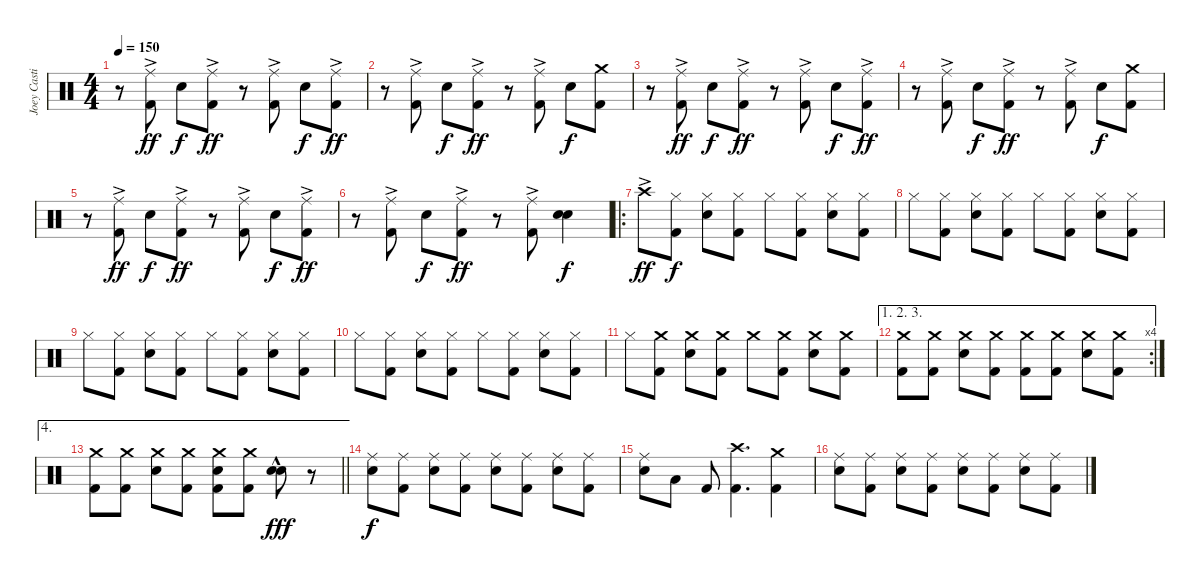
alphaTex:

\track ("Joey Castillo" "Joey Casti") {instrument percussion}
\staff {score}
\articulation defaults
\ts (4 4)
\tempo 150
\clef neutral
\ks c
r.8{dy f} ("Ride (middle)"{ac} "Kick (hit) 2").8{dy ff} "Snare (hit) 2".8{dy f} ("Ride (middle)"{ac} "Kick (hit) 2").8{dy ff} r.8 ("Ride (middle)"{ac} "Kick (hit) 2").8 "Snare (hit) 2".8{dy f} ("Ride (middle)"{ac} "Kick (hit) 2").8{dy ff} |
r.8 ("Ride (middle)"{ac} "Kick (hit) 2").8 "Snare (hit) 2".8{dy f} ("Ride (middle)"{ac} "Kick (hit) 2").8{dy ff} r.8 ("Ride (middle)"{ac} "Kick (hit) 2").8 "Snare (hit) 2".8{dy f} ("Crash medium (hit)" "Kick (hit) 2").8 |
r.8 ("Ride (middle)"{ac} "Kick (hit) 2").8{dy ff} "Snare (hit) 2".8{dy f} ("Ride (middle)"{ac} "Kick (hit) 2").8{dy ff} r.8 ("Ride (middle)"{ac} "Kick (hit) 2").8 "Snare (hit) 2".8{dy f} ("Ride (middle)"{ac} "Kick (hit) 2").8{dy ff} |
r.8 ("Ride (middle)"{ac} "Kick (hit) 2").8 "Snare (hit) 2".8{dy f} ("Ride (middle)"{ac} "Kick (hit) 2").8{dy ff} r.8 ("Ride (middle)"{ac} "Kick (hit) 2").8 "Snare (hit) 2".8{dy f} ("Crash medium (hit)" "Kick (hit) 2").8 |
r.8 ("Ride (middle)"{ac} "Kick (hit) 2").8{dy ff} "Snare (hit) 2".8{dy f} ("Ride (middle)"{ac} "Kick (hit) 2").8{dy ff} r.8 ("Ride (middle)"{ac} "Kick (hit) 2").8 "Snare (hit) 2".8{dy f} ("Ride (middle)"{ac} "Kick (hit) 2").8{dy ff} |
r.8 ("Ride (middle)"{ac} "Kick (hit) 2").8 "Snare (hit) 2".8{dy f} ("Ride (middle)"{ac} "Kick (hit) 2").8{dy ff} r.8 ("Ride (middle)"{ac} "Kick (hit) 2").8 ("Snare (hit) 2" "Snare (hit) 2").4{bd 240 dy f} |
\ro "Crash high (hit)"{ac}.8{dy ff}
("Hi-Hat (closed)" "Kick (hit) 2").8{dy f} ("Hi-Hat (closed)" "Snare (hit) 2").8 ("Hi-Hat (closed)" "Kick (hit) 2").8 "Hi-Hat (closed)".8 ("Hi-Hat (closed)" "Kick (hit) 2").8 ("Hi-Hat (closed)" "Snare (hit) 2").8 ("Hi-Hat (closed)" "Kick (hit) 2").8 |
"Hi-Hat (closed)".8 ("Hi-Hat (closed)" "Kick (hit) 2").8 ("Hi-Hat (closed)" "Snare (hit) 2").8 ("Hi-Hat (closed)" "Kick (hit) 2").8 "Hi-Hat (closed)".8 ("Hi-Hat (closed)" "Kick (hit) 2").8 ("Hi-Hat (closed)" "Snare (hit) 2").8 ("Hi-Hat (closed)" "Kick (hit) 2").8 |
"Hi-Hat (closed)".8 ("Hi-Hat (closed)" "Kick (hit) 2").8 ("Hi-Hat (closed)" "Snare (hit) 2").8 ("Hi-Hat (closed)" "Kick (hit) 2").8 "Hi-Hat (closed)".8 ("Hi-Hat (closed)" "Kick (hit) 2").8 ("Hi-Hat (closed)" "Snare (hit) 2").8 ("Hi-Hat (closed)" "Kick (hit) 2").8 |
"Hi-Hat (closed)".8 ("Hi-Hat (closed)" "Kick (hit) 2").8 ("Hi-Hat (closed)" "Snare (hit) 2").8 ("Hi-Hat (closed)" "Kick (hit) 2").8 "Hi-Hat (closed)".8 ("Hi-Hat (closed)" "Kick (hit) 2").8 ("Hi-Hat (closed)" "Snare (hit) 2").8 ("Hi-Hat (closed)" "Kick (hit) 2").8 |
"Hi-Hat (closed)".8 ("Crash medium (hit)" "Kick (hit) 2").8 ("Crash medium (hit)" "Snare (hit) 2").8 ("Crash medium (hit)" "Kick (hit) 2").8 "Crash medium (hit)".8 ("Crash medium (hit)" "Kick (hit) 2").8 ("Crash medium (hit)" "Snare (hit) 2").8 ("Crash medium (hit)" "Kick (hit) 2").8 |
\ae (1 2 3)
\rc 4
("Crash medium (hit)" "Kick (hit) 2").8 ("Crash medium (hit)" "Kick (hit) 2").8 ("Crash medium (hit)" "Snare (hit) 2").8 ("Crash medium (hit)" "Kick (hit) 2").8 ("Crash medium (hit)" "Kick (hit) 2").8 ("Crash medium (hit)" "Kick (hit) 2").8 ("Crash medium (hit)" "Snare (hit) 2").8 ("Crash medium (hit)" "Kick (hit) 2").8 |
\ae 4
\barLineRight lightlight
("Crash medium (hit)" "Kick (hit) 2").8 ("Crash medium (hit)" "Kick (hit) 2").8 ("Crash medium (hit)" "Snare (hit) 2").8 ("Crash medium (hit)" "Kick (hit) 2").8 ("Crash medium (hit)" "Snare (hit) 2" "Kick (hit) 2").8 ("Crash medium (hit)" "Kick (hit) 2").8 ("Snare (hit) 2"{hac} "Snare (hit) 2"{hac}).8{bd 240 dy fff} r.8 |
("Ride (middle)" "Snare (hit) 2").8{dy f} ("Ride (middle)" "Kick (hit) 2").8 ("Ride (middle)" "Snare (hit) 2").8 ("Ride (middle)" "Kick (hit) 2").8 ("Ride (middle)" "Snare (hit) 2").8 ("Ride (middle)" "Kick (hit) 2").8 ("Ride (middle)" "Snare (hit) 2").8 ("Ride (middle)" "Kick (hit) 2").8 |
("Ride (middle)" "Snare (hit) 2").8 "Low Tom (hit)".8 "Kick (hit) 2".8 ("Crash high (hit)" "Kick (hit) 2").4{d} ("Crash medium (hit)" "Kick (hit) 2").4 |
("Ride (middle)" "Snare (hit) 2").8 ("Ride (middle)" "Kick (hit) 2").8 ("Ride (middle)" "Snare (hit) 2").8 ("Ride (middle)" "Kick (hit) 2").8 ("Ride (middle)" "Snare (hit) 2").8 ("Ride (middle)" "Kick (hit) 2").8 ("Ride (middle)" "Snare (hit) 2").8 ("Ride (middle)" "Kick (hit) 2").8
